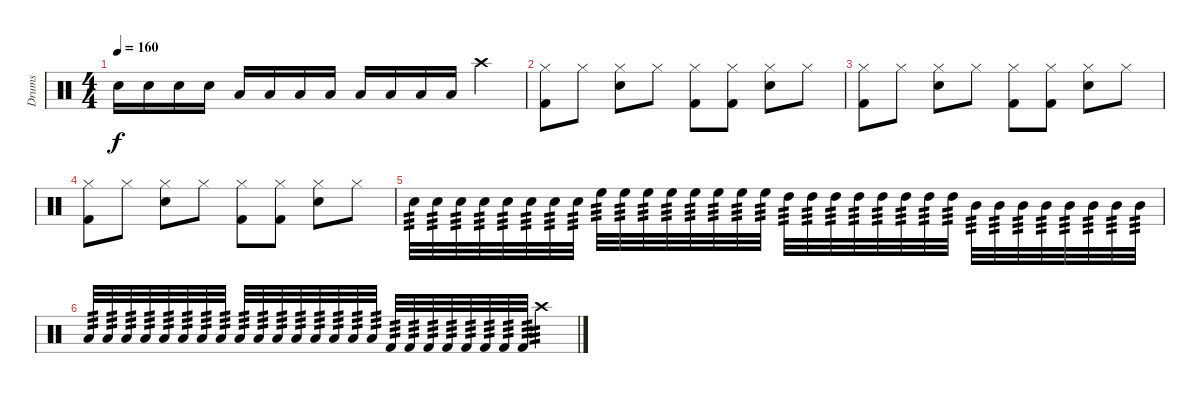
\track ("Drums" "Drums") {instrument percussion}
\staff {score}
\articulation defaults
\ts (4 4)
\tempo 160
\clef neutral
\ks c "Snare (hit) 2".16{dy f} "Snare (hit) 2".16 "Snare (hit) 2".16 "Snare (hit) 2".16 "Low Tom (hit)".16 "Low Tom (hit)".16 "Low Tom (hit)".16 "Low Tom (hit)".16 "Low Floor Tom (hit)".16 "Low Floor Tom (hit)".16 "Low Floor Tom (hit)".16 "Low Floor Tom (hit)".16 "Crash high (hit)".4
|
("Kick (hit) 2" "Hi-Hat (closed)").8 "Hi-Hat (closed)".8 ("Snare (hit) 2" "Hi-Hat (closed)").8 "Hi-Hat (closed)".8 ("Kick (hit) 2" "Hi-Hat (closed)").8 ("Kick (hit) 2" "Hi-Hat (closed)").8 ("Snare (hit) 2" "Hi-Hat (closed)").8 "Hi-Hat (closed)".8 |
("Kick (hit) 2" "Hi-Hat (closed)").8 "Hi-Hat (closed)".8 ("Snare (hit) 2" "Hi-Hat (closed)").8 "Hi-Hat (closed)".8 ("Kick (hit) 2" "Hi-Hat (closed)").8 ("Kick (hit) 2" "Hi-Hat (closed)").8 ("Snare (hit) 2" "Hi-Hat (closed)").8 "Hi-Hat (closed)".8 |
("Kick (hit) 2" "Hi-Hat (closed)").8 "Hi-Hat (closed)".8 ("Snare (hit) 2" "Hi-Hat (closed)").8 "Hi-Hat (closed)".8 ("Kick (hit) 2" "Hi-Hat (closed)").8 ("Kick (hit) 2" "Hi-Hat (closed)").8 ("Snare (hit) 2" "Hi-Hat (closed)").8 "Hi-Hat (closed)".8 |
"Snare (hit) 2".32{tp 3} "Snare (hit) 2".32{tp 3} "Snare (hit) 2".32{tp 3} "Snare (hit) 2".32{tp 3} "Snare (hit) 2".32{tp 3} "Snare (hit) 2".32{tp 3} "Snare (hit) 2".32{tp 3} "Snare (hit) 2".32{tp 3} "High Floor Tom (hit)".32{tp 3} "High Floor Tom (hit)".32{tp 3} "High Floor Tom (hit)".32{tp 3} "High Floor Tom (hit)".32{tp 3} "High Floor Tom (hit)".32{tp 3} "High Floor Tom (hit)".32{tp 3} "High Floor Tom (hit)".32{tp 3} "High Floor Tom (hit)".32{tp 3} "High Tom (hit)".32{tp 3} "High Tom (hit)".32{tp 3} "High Tom (hit)".32{tp 3} "High Tom (hit)".32{tp 3} "High Tom (hit)".32{tp 3} "High Tom (hit)".32{tp 3} "High Tom (hit)".32{tp 3} "High Tom (hit)".32{tp 3} "Mid Tom (hit)".32{tp 3} "Mid Tom (hit)".32{tp 3} "Mid Tom (hit)".32{tp 3} "Mid Tom (hit)".32{tp 3} "Mid Tom (hit)".32{tp 3} "Mid Tom (hit)".32{tp 3} "Mid Tom (hit)".32{tp 3} "Mid Tom (hit)".32{tp 3} |
"Low Tom (hit)".32{tp 3} "Low Tom (hit)".32{tp 3} "Low Tom (hit)".32{tp 3} "Low Tom (hit)".32{tp 3} "Low Tom (hit)".32{tp 3} "Low Tom (hit)".32{tp 3} "Low Tom (hit)".32{tp 3} "Low Tom (hit)".32{tp 3} "Low Floor Tom (hit)".32{tp 3} "Low Floor Tom (hit)".32{tp 3} "Low Floor Tom (hit)".32{tp 3} "Low Floor Tom (hit)".32{tp 3} "Low Floor Tom (hit)".32{tp 3} "Low Floor Tom (hit)".32{tp 3} "Low Floor Tom (hit)".32{tp 3} "Low Floor Tom (hit)".32{tp 3} "Kick (hit) 2".32{tp 3} "Kick (hit) 2".32{tp 3} "Kick (hit) 2".32{tp 3} "Kick (hit) 2".32{tp 3} "Kick (hit) 2".32{tp 3} "Kick (hit) 2".32{tp 3} "Kick (hit) 2".32{tp 3} "Kick (hit) 2".32{tp 3} "Crash high (hit)".4{tp 3}
